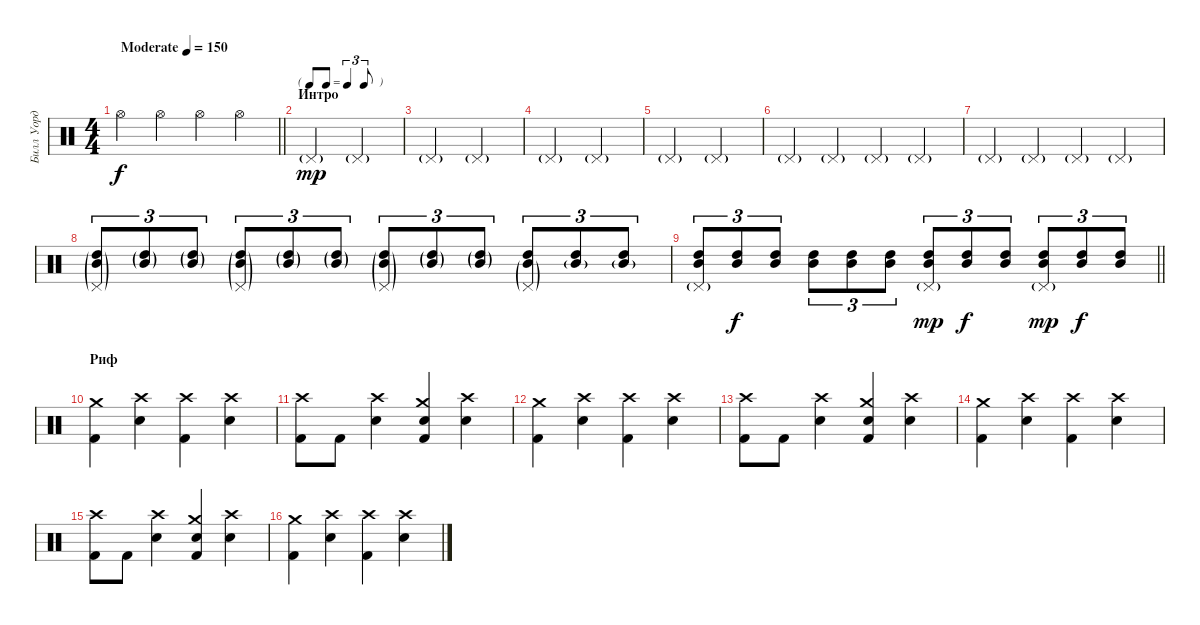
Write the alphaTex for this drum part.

\track ("Билл Уорд" "Билл Уорд") {instrument percussion}
\staff {score}
\articulation defaults
\ts (4 4)
\tempo (150 "Moderate")
\clef neutral
\barLineRight lightlight
\ks c "Hi-Hat (open)".4{dy f} "Hi-Hat (open)".4 "Hi-Hat (open)".4 "Hi-Hat (open)".4
|
\tf triplet8th
\section ("" "Интро")
"Pedal Hi-Hat (hit)"{g}.2{dy mp} "Pedal Hi-Hat (hit)"{g}.2 |
"Pedal Hi-Hat (hit)"{g}.2 "Pedal Hi-Hat (hit)"{g}.2 |
"Pedal Hi-Hat (hit)"{g}.2 "Pedal Hi-Hat (hit)"{g}.2 |
"Pedal Hi-Hat (hit)"{g}.2 "Pedal Hi-Hat (hit)"{g}.2 |
"Pedal Hi-Hat (hit)"{g}.4 "Pedal Hi-Hat (hit)"{g}.4 "Pedal Hi-Hat (hit)"{g}.4 "Pedal Hi-Hat (hit)"{g}.4 |
"Pedal Hi-Hat (hit)"{g}.4 "Pedal Hi-Hat (hit)"{g}.4 "Pedal Hi-Hat (hit)"{g}.4 "Pedal Hi-Hat (hit)"{g}.4 |
("Mid Tom (hit)"{g} "High Tom (hit)"{g} "Pedal Hi-Hat (hit)"{g}).8{tu (3 2)} ("Mid Tom (hit)"{g} "High Tom (hit)"{g}).8{tu (3 2)} ("Mid Tom (hit)"{g} "High Tom (hit)"{g}).8{tu (3 2)} ("Mid Tom (hit)"{g} "High Tom (hit)"{g} "Pedal Hi-Hat (hit)"{g}).8{tu (3 2)} ("Mid Tom (hit)"{g} "High Tom (hit)"{g}).8{tu (3 2)} ("Mid Tom (hit)"{g} "High Tom (hit)"{g}).8{tu (3 2)} ("Mid Tom (hit)"{g} "High Tom (hit)"{g} "Pedal Hi-Hat (hit)"{g}).8{tu (3 2)} ("Mid Tom (hit)"{g} "High Tom (hit)"{g}).8{tu (3 2)} ("Mid Tom (hit)"{g} "High Tom (hit)"{g}).8{tu (3 2)} ("Mid Tom (hit)"{g} "High Tom (hit)" "Pedal Hi-Hat (hit)"{g}).8{tu (3 2)} ("Mid Tom (hit)"{g} "High Tom (hit)").8{tu (3 2)} ("Mid Tom (hit)"{g} "High Tom (hit)").8{tu (3 2)} |
\barLineRight lightlight
("Mid Tom (hit)" "High Tom (hit)" "Pedal Hi-Hat (hit)"{g}).8{tu (3 2)} ("Mid Tom (hit)" "High Tom (hit)").8{tu (3 2) dy f} ("Mid Tom (hit)" "High Tom (hit)").8{tu (3 2)} ("Mid Tom (hit)" "High Tom (hit)").8{tu (3 2)} ("Mid Tom (hit)" "High Tom (hit)").8{tu (3 2)} ("Mid Tom (hit)" "High Tom (hit)").8{tu (3 2)} ("Mid Tom (hit)" "High Tom (hit)" "Pedal Hi-Hat (hit)"{g}).8{tu (3 2) dy mp} ("Mid Tom (hit)" "High Tom (hit)").8{tu (3 2) dy f} ("Mid Tom (hit)" "High Tom (hit)").8{tu (3 2)} ("Mid Tom (hit)" "High Tom (hit)" "Pedal Hi-Hat (hit)"{g}).8{tu (3 2) dy mp} ("Mid Tom (hit)" "High Tom (hit)").8{tu (3 2) dy f} ("Mid Tom (hit)" "High Tom (hit)").8{tu (3 2)} |
\section ("" "Риф")
("Kick (hit) 2" "Crash medium (hit)").4 ("Snare (hit) 2" "Crash high (hit)").4 ("Kick (hit) 2" "Crash high (hit)").4 ("Snare (hit) 2" "Crash high (hit)").4 |
("Kick (hit) 2" "Crash high (hit)").8 "Kick (hit) 2".8 ("Snare (hit) 2" "Crash high (hit)").4 ("Snare (hit) 2" "Kick (hit) 2" "Crash medium (hit)").4 ("Snare (hit) 2" "Crash high (hit)").4 |
("Kick (hit) 2" "Crash medium (hit)").4 ("Snare (hit) 2" "Crash high (hit)").4 ("Kick (hit) 2" "Crash high (hit)").4 ("Snare (hit) 2" "Crash high (hit)").4 |
("Kick (hit) 2" "Crash high (hit)").8 "Kick (hit) 2".8 ("Snare (hit) 2" "Crash high (hit)").4 ("Snare (hit) 2" "Kick (hit) 2" "Crash medium (hit)").4 ("Snare (hit) 2" "Crash high (hit)").4 |
("Kick (hit) 2" "Crash medium (hit)").4 ("Snare (hit) 2" "Crash high (hit)").4 ("Kick (hit) 2" "Crash high (hit)").4 ("Snare (hit) 2" "Crash high (hit)").4 |
("Kick (hit) 2" "Crash high (hit)").8 "Kick (hit) 2".8 ("Snare (hit) 2" "Crash high (hit)").4 ("Snare (hit) 2" "Kick (hit) 2" "Crash medium (hit)").4 ("Snare (hit) 2" "Crash high (hit)").4 |
("Kick (hit) 2" "Crash medium (hit)").4 ("Snare (hit) 2" "Crash high (hit)").4 ("Kick (hit) 2" "Crash high (hit)").4 ("Snare (hit) 2" "Crash high (hit)").4
